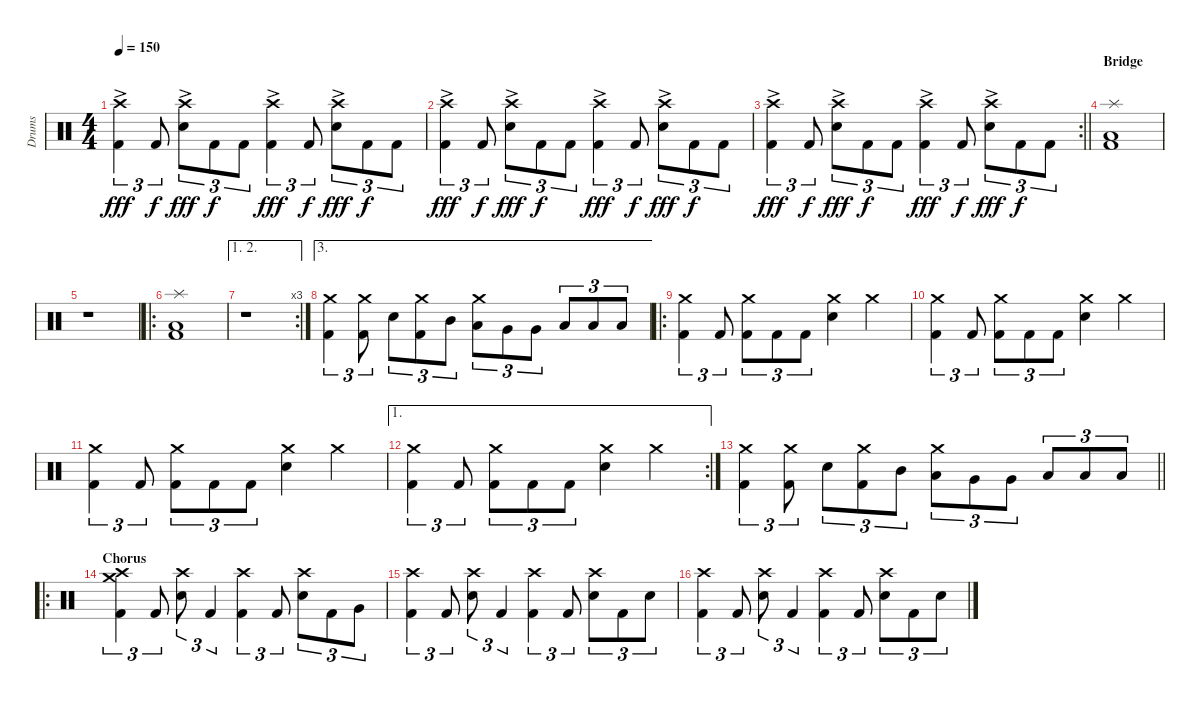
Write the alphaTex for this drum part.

\track ("Drums" "Drums") {instrument percussion}
\staff {score}
\articulation defaults
\ts (4 4)
\tempo 150
\clef neutral
\ks c
("Crash high (hit)"{ac} "Kick (hit) 2").4{tu (3 2) dy fff} "Kick (hit) 2".8{tu (3 2) dy f} ("Crash high (hit)"{ac} "Electric Snare (hit)").8{tu (3 2) dy fff} "Kick (hit) 2".8{tu (3 2) dy f} "Kick (hit) 2".8{tu (3 2)} ("Crash high (hit)"{ac} "Kick (hit) 2").4{tu (3 2) dy fff} "Kick (hit) 2".8{tu (3 2) dy f} ("Electric Snare (hit)" "Crash high (hit)"{ac}).8{tu (3 2) dy fff} "Kick (hit) 2".8{tu (3 2) dy f} "Kick (hit) 2".8{tu (3 2)} |
("Crash high (hit)"{ac} "Kick (hit) 2").4{tu (3 2) dy fff} "Kick (hit) 2".8{tu (3 2) dy f} ("Crash high (hit)"{ac} "Electric Snare (hit)").8{tu (3 2) dy fff} "Kick (hit) 2".8{tu (3 2) dy f} "Kick (hit) 2".8{tu (3 2)} ("Crash high (hit)"{ac} "Kick (hit) 2").4{tu (3 2) dy fff} "Kick (hit) 2".8{tu (3 2) dy f} ("Electric Snare (hit)" "Crash high (hit)"{ac}).8{tu (3 2) dy fff} "Kick (hit) 2".8{tu (3 2) dy f} "Kick (hit) 2".8{tu (3 2)} |
\rc 2
\barLineRight lightlight
("Crash high (hit)"{ac} "Kick (hit) 2").4{tu (3 2) dy fff} "Kick (hit) 2".8{tu (3 2) dy f} ("Crash high (hit)"{ac} "Electric Snare (hit)").8{tu (3 2) dy fff} "Kick (hit) 2".8{tu (3 2) dy f} "Kick (hit) 2".8{tu (3 2)} ("Crash high (hit)"{ac} "Kick (hit) 2").4{tu (3 2) dy fff} "Kick (hit) 2".8{tu (3 2) dy f} ("Electric Snare (hit)" "Crash high (hit)"{ac}).8{tu (3 2) dy fff} "Kick (hit) 2".8{tu (3 2) dy f} "Kick (hit) 2".8{tu (3 2)} |
\section ("" "Bridge")
("Splash (hit)" "Kick (hit) 2" "Low Floor Tom (hit)").1 |
r.1 |
\ro
("Splash (hit)" "Kick (hit) 2" "Low Floor Tom (hit)").1 |
\ae (1 2)
\rc 3
r.1 |
\ae 3
("Crash medium (hit)" "Kick (hit) 2").4{tu (3 2)} ("Crash medium (hit)" "Kick (hit) 2").8{tu (3 2)} "Electric Snare (hit)".8{tu (3 2)} ("Crash medium (hit)" "Kick (hit) 2").8{tu (3 2)} "Mid Tom (hit)".8{tu (3 2)} ("Crash medium (hit)" "Low Tom (hit)").8{tu (3 2)} "Very Low Tom (hit)".8{tu (3 2)} "Very Low Tom (hit)".8{tu (3 2)} "Low Floor Tom (hit)".8{tu (3 2)} "Low Floor Tom (hit)".8{tu (3 2)} "Low Floor Tom (hit)".8{tu (3 2)} |
\ro
("Crash medium (hit)" "Kick (hit) 2").4{tu (3 2)} "Kick (hit) 2".8{tu (3 2)} ("Crash medium (hit)" "Kick (hit) 2").8{tu (3 2)} "Kick (hit) 2".8{tu (3 2)} "Kick (hit) 2".8{tu (3 2)} ("Crash medium (hit)" "Electric Snare (hit)").4 "Crash medium (hit)".4 |
("Crash medium (hit)" "Kick (hit) 2").4{tu (3 2)} "Kick (hit) 2".8{tu (3 2)} ("Crash medium (hit)" "Kick (hit) 2").8{tu (3 2)} "Kick (hit) 2".8{tu (3 2)} "Kick (hit) 2".8{tu (3 2)} ("Crash medium (hit)" "Electric Snare (hit)").4 "Crash medium (hit)".4 |
("Crash medium (hit)" "Kick (hit) 2").4{tu (3 2)} "Kick (hit) 2".8{tu (3 2)} ("Crash medium (hit)" "Kick (hit) 2").8{tu (3 2)} "Kick (hit) 2".8{tu (3 2)} "Kick (hit) 2".8{tu (3 2)} ("Crash medium (hit)" "Electric Snare (hit)").4 "Crash medium (hit)".4 |
\ae 1
\rc 2
("Crash medium (hit)" "Kick (hit) 2").4{tu (3 2)} "Kick (hit) 2".8{tu (3 2)} ("Crash medium (hit)" "Kick (hit) 2").8{tu (3 2)} "Kick (hit) 2".8{tu (3 2)} "Kick (hit) 2".8{tu (3 2)} ("Crash medium (hit)" "Electric Snare (hit)").4 "Crash medium (hit)".4 |
\barLineRight lightlight
("Crash medium (hit)" "Kick (hit) 2").4{tu (3 2)} ("Crash medium (hit)" "Kick (hit) 2").8{tu (3 2)} "Electric Snare (hit)".8{tu (3 2)} ("Crash medium (hit)" "Kick (hit) 2").8{tu (3 2)} "Mid Tom (hit)".8{tu (3 2)} ("Crash medium (hit)" "Low Tom (hit)").8{tu (3 2)} "Very Low Tom (hit)".8{tu (3 2)} "Very Low Tom (hit)".8{tu (3 2)} "Low Floor Tom (hit)".8{tu (3 2)} "Low Floor Tom (hit)".8{tu (3 2)} "Low Floor Tom (hit)".8{tu (3 2)} |
\ro
\section ("" "Chorus")
("Crash medium (hit)" "Crash high (hit)" "Kick (hit) 2").4{tu (3 2)} "Kick (hit) 2".8{tu (3 2)} ("Crash high (hit)" "Electric Snare (hit)").8{tu (3 2)} "Kick (hit) 2".4{tu (3 2)} ("Crash high (hit)" "Kick (hit) 2").4{tu (3 2)} "Kick (hit) 2".8{tu (3 2)} ("Electric Snare (hit)" "Crash high (hit)").8{tu (3 2)} "Kick (hit) 2".8{tu (3 2)} "Very Low Tom (hit)".8{tu (3 2)} |
("Crash high (hit)" "Kick (hit) 2").4{tu (3 2)} "Kick (hit) 2".8{tu (3 2)} ("Crash high (hit)" "Electric Snare (hit)").8{tu (3 2)} "Kick (hit) 2".4{tu (3 2)} ("Crash high (hit)" "Kick (hit) 2").4{tu (3 2)} "Kick (hit) 2".8{tu (3 2)} ("Electric Snare (hit)" "Crash high (hit)").8{tu (3 2)} "Kick (hit) 2".8{tu (3 2)} "Electric Snare (hit)".8{tu (3 2)} |
("Crash high (hit)" "Kick (hit) 2").4{tu (3 2)} "Kick (hit) 2".8{tu (3 2)} ("Crash high (hit)" "Electric Snare (hit)").8{tu (3 2)} "Kick (hit) 2".4{tu (3 2)} ("Crash high (hit)" "Kick (hit) 2").4{tu (3 2)} "Kick (hit) 2".8{tu (3 2)} ("Electric Snare (hit)" "Crash high (hit)").8{tu (3 2)} "Kick (hit) 2".8{tu (3 2)} "Electric Snare (hit)".8{tu (3 2)}
